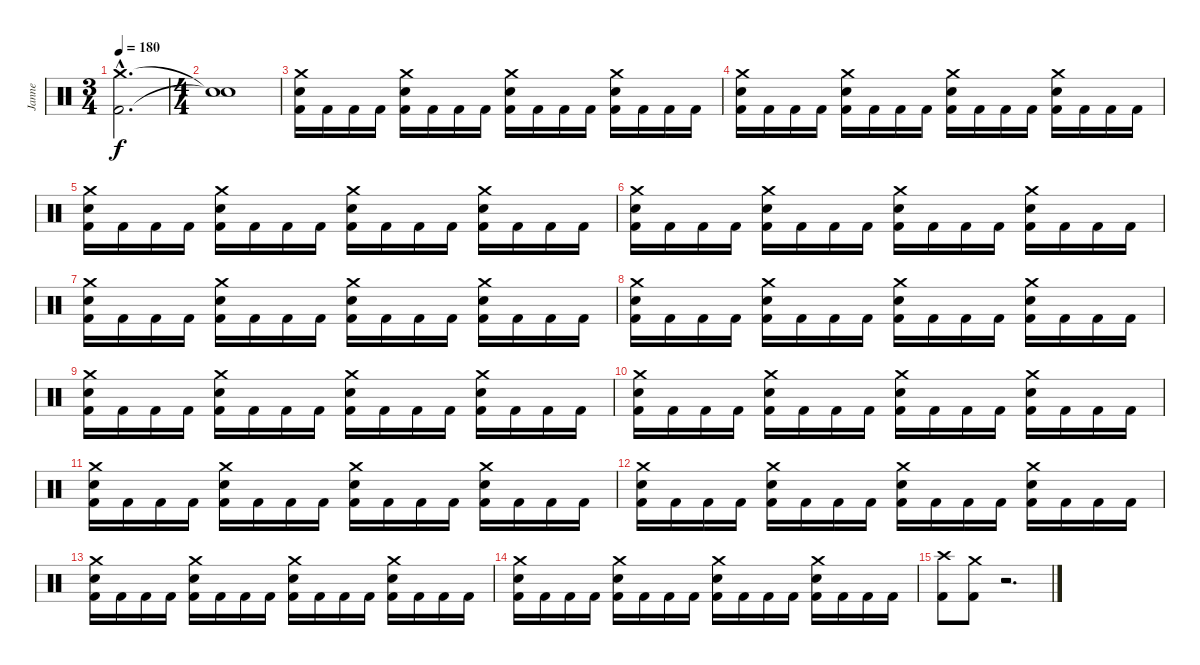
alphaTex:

\track ("Janne" "Janne") {instrument percussion}
\staff {score}
\articulation defaults
\ts (3 4)
\tempo 180
\clef neutral
\ks c
("Crash medium (hit)"{hac} "Kick (hit) 2"{hac}).2{d dy f} |
\ts (4 4)
("Snare (hit)"{t} "Snare (hit)"{t}).1 |
("Crash medium (hit)" "Electric Snare (hit)" "Kick (hit) 2").16 "Kick (hit) 2".16 "Kick (hit) 2".16 "Kick (hit) 2".16 ("Crash medium (hit)" "Electric Snare (hit)" "Kick (hit) 2").16 "Kick (hit) 2".16 "Kick (hit) 2".16 "Kick (hit) 2".16 ("Crash medium (hit)" "Electric Snare (hit)" "Kick (hit) 2").16 "Kick (hit) 2".16 "Kick (hit) 2".16 "Kick (hit) 2".16 ("Crash medium (hit)" "Electric Snare (hit)" "Kick (hit) 2").16 "Kick (hit) 2".16 "Kick (hit) 2".16 "Kick (hit) 2".16 |
("Crash medium (hit)" "Electric Snare (hit)" "Kick (hit) 2").16 "Kick (hit) 2".16 "Kick (hit) 2".16 "Kick (hit) 2".16 ("Crash medium (hit)" "Electric Snare (hit)" "Kick (hit) 2").16 "Kick (hit) 2".16 "Kick (hit) 2".16 "Kick (hit) 2".16 ("Crash medium (hit)" "Electric Snare (hit)" "Kick (hit) 2").16 "Kick (hit) 2".16 "Kick (hit) 2".16 "Kick (hit) 2".16 ("Crash medium (hit)" "Electric Snare (hit)" "Kick (hit) 2").16 "Kick (hit) 2".16 "Kick (hit) 2".16 "Kick (hit) 2".16 |
("Crash medium (hit)" "Electric Snare (hit)" "Kick (hit) 2").16 "Kick (hit) 2".16 "Kick (hit) 2".16 "Kick (hit) 2".16 ("Crash medium (hit)" "Electric Snare (hit)" "Kick (hit) 2").16 "Kick (hit) 2".16 "Kick (hit) 2".16 "Kick (hit) 2".16 ("Crash medium (hit)" "Electric Snare (hit)" "Kick (hit) 2").16 "Kick (hit) 2".16 "Kick (hit) 2".16 "Kick (hit) 2".16 ("Crash medium (hit)" "Electric Snare (hit)" "Kick (hit) 2").16 "Kick (hit) 2".16 "Kick (hit) 2".16 "Kick (hit) 2".16 |
("Crash medium (hit)" "Electric Snare (hit)" "Kick (hit) 2").16 "Kick (hit) 2".16 "Kick (hit) 2".16 "Kick (hit) 2".16 ("Crash medium (hit)" "Electric Snare (hit)" "Kick (hit) 2").16 "Kick (hit) 2".16 "Kick (hit) 2".16 "Kick (hit) 2".16 ("Crash medium (hit)" "Electric Snare (hit)" "Kick (hit) 2").16 "Kick (hit) 2".16 "Kick (hit) 2".16 "Kick (hit) 2".16 ("Crash medium (hit)" "Electric Snare (hit)" "Kick (hit) 2").16 "Kick (hit) 2".16 "Kick (hit) 2".16 "Kick (hit) 2".16 |
("Crash medium (hit)" "Electric Snare (hit)" "Kick (hit) 2").16 "Kick (hit) 2".16 "Kick (hit) 2".16 "Kick (hit) 2".16 ("Crash medium (hit)" "Electric Snare (hit)" "Kick (hit) 2").16 "Kick (hit) 2".16 "Kick (hit) 2".16 "Kick (hit) 2".16 ("Crash medium (hit)" "Electric Snare (hit)" "Kick (hit) 2").16 "Kick (hit) 2".16 "Kick (hit) 2".16 "Kick (hit) 2".16 ("Crash medium (hit)" "Electric Snare (hit)" "Kick (hit) 2").16 "Kick (hit) 2".16 "Kick (hit) 2".16 "Kick (hit) 2".16 |
("Crash medium (hit)" "Electric Snare (hit)" "Kick (hit) 2").16 "Kick (hit) 2".16 "Kick (hit) 2".16 "Kick (hit) 2".16 ("Crash medium (hit)" "Electric Snare (hit)" "Kick (hit) 2").16 "Kick (hit) 2".16 "Kick (hit) 2".16 "Kick (hit) 2".16 ("Crash medium (hit)" "Electric Snare (hit)" "Kick (hit) 2").16 "Kick (hit) 2".16 "Kick (hit) 2".16 "Kick (hit) 2".16 ("Crash medium (hit)" "Electric Snare (hit)" "Kick (hit) 2").16 "Kick (hit) 2".16 "Kick (hit) 2".16 "Kick (hit) 2".16 |
("Crash medium (hit)" "Electric Snare (hit)" "Kick (hit) 2").16 "Kick (hit) 2".16 "Kick (hit) 2".16 "Kick (hit) 2".16 ("Crash medium (hit)" "Electric Snare (hit)" "Kick (hit) 2").16 "Kick (hit) 2".16 "Kick (hit) 2".16 "Kick (hit) 2".16 ("Crash medium (hit)" "Electric Snare (hit)" "Kick (hit) 2").16 "Kick (hit) 2".16 "Kick (hit) 2".16 "Kick (hit) 2".16 ("Crash medium (hit)" "Electric Snare (hit)" "Kick (hit) 2").16 "Kick (hit) 2".16 "Kick (hit) 2".16 "Kick (hit) 2".16 |
("Crash medium (hit)" "Electric Snare (hit)" "Kick (hit) 2").16 "Kick (hit) 2".16 "Kick (hit) 2".16 "Kick (hit) 2".16 ("Crash medium (hit)" "Electric Snare (hit)" "Kick (hit) 2").16 "Kick (hit) 2".16 "Kick (hit) 2".16 "Kick (hit) 2".16 ("Crash medium (hit)" "Electric Snare (hit)" "Kick (hit) 2").16 "Kick (hit) 2".16 "Kick (hit) 2".16 "Kick (hit) 2".16 ("Crash medium (hit)" "Electric Snare (hit)" "Kick (hit) 2").16 "Kick (hit) 2".16 "Kick (hit) 2".16 "Kick (hit) 2".16 |
("Crash medium (hit)" "Electric Snare (hit)" "Kick (hit) 2").16 "Kick (hit) 2".16 "Kick (hit) 2".16 "Kick (hit) 2".16 ("Crash medium (hit)" "Electric Snare (hit)" "Kick (hit) 2").16 "Kick (hit) 2".16 "Kick (hit) 2".16 "Kick (hit) 2".16 ("Crash medium (hit)" "Electric Snare (hit)" "Kick (hit) 2").16 "Kick (hit) 2".16 "Kick (hit) 2".16 "Kick (hit) 2".16 ("Crash medium (hit)" "Electric Snare (hit)" "Kick (hit) 2").16 "Kick (hit) 2".16 "Kick (hit) 2".16 "Kick (hit) 2".16 |
("Crash medium (hit)" "Electric Snare (hit)" "Kick (hit) 2").16 "Kick (hit) 2".16 "Kick (hit) 2".16 "Kick (hit) 2".16 ("Crash medium (hit)" "Electric Snare (hit)" "Kick (hit) 2").16 "Kick (hit) 2".16 "Kick (hit) 2".16 "Kick (hit) 2".16 ("Crash medium (hit)" "Electric Snare (hit)" "Kick (hit) 2").16 "Kick (hit) 2".16 "Kick (hit) 2".16 "Kick (hit) 2".16 ("Crash medium (hit)" "Electric Snare (hit)" "Kick (hit) 2").16 "Kick (hit) 2".16 "Kick (hit) 2".16 "Kick (hit) 2".16 |
("Crash medium (hit)" "Electric Snare (hit)" "Kick (hit) 2").16 "Kick (hit) 2".16 "Kick (hit) 2".16 "Kick (hit) 2".16 ("Crash medium (hit)" "Electric Snare (hit)" "Kick (hit) 2").16 "Kick (hit) 2".16 "Kick (hit) 2".16 "Kick (hit) 2".16 ("Crash medium (hit)" "Electric Snare (hit)" "Kick (hit) 2").16 "Kick (hit) 2".16 "Kick (hit) 2".16 "Kick (hit) 2".16 ("Crash medium (hit)" "Electric Snare (hit)" "Kick (hit) 2").16 "Kick (hit) 2".16 "Kick (hit) 2".16 "Kick (hit) 2".16 |
("Crash medium (hit)" "Electric Snare (hit)" "Kick (hit) 2").16 "Kick (hit) 2".16 "Kick (hit) 2".16 "Kick (hit) 2".16 ("Crash medium (hit)" "Electric Snare (hit)" "Kick (hit) 2").16 "Kick (hit) 2".16 "Kick (hit) 2".16 "Kick (hit) 2".16 ("Crash medium (hit)" "Electric Snare (hit)" "Kick (hit) 2").16 "Kick (hit) 2".16 "Kick (hit) 2".16 "Kick (hit) 2".16 ("Crash medium (hit)" "Electric Snare (hit)" "Kick (hit) 2").16 "Kick (hit) 2".16 "Kick (hit) 2".16 "Kick (hit) 2".16 |
("Crash high (hit)" "Kick (hit) 2").8 ("Crash medium (hit)" "Kick (hit) 2").8 r.2{d}
